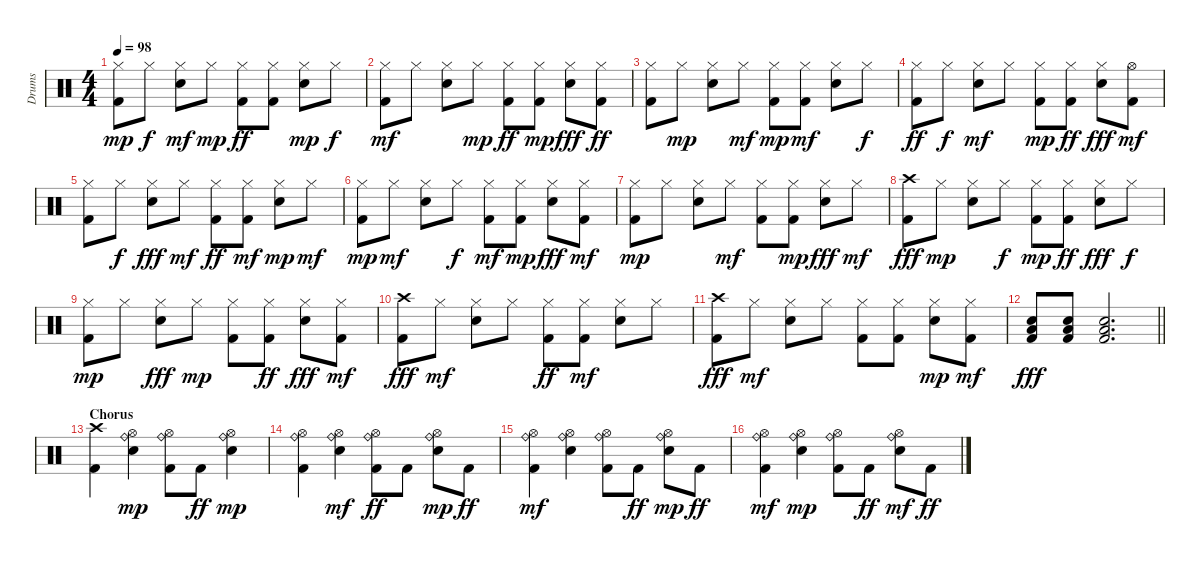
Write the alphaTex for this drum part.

\track ("Drums" "Drums") {instrument percussion}
\staff {score}
\articulation defaults
\ts (4 4)
\tempo 98
\clef neutral
\ks c
("Kick (hit) 2" "Hi-Hat (closed)").8{dy mp} "Hi-Hat (closed)".8{dy f} ("Electric Snare (hit)" "Hi-Hat (closed)").8{dy mf} "Hi-Hat (closed)".8{dy mp} ("Kick (hit) 2" "Hi-Hat (closed)").8{dy ff} ("Kick (hit) 2" "Hi-Hat (closed)").8 ("Electric Snare (hit)" "Hi-Hat (closed)").8{dy mp} "Hi-Hat (closed)".8{dy f} |
("Kick (hit) 2" "Hi-Hat (closed)").8{dy mf} "Hi-Hat (closed)".8 ("Electric Snare (hit)" "Hi-Hat (closed)").8 "Hi-Hat (closed)".8{dy mp} ("Kick (hit) 2" "Hi-Hat (closed)").8{dy ff} ("Kick (hit) 2" "Hi-Hat (closed)").8{dy mp} ("Electric Snare (hit)" "Hi-Hat (closed)").8{dy fff} ("Kick (hit) 2" "Hi-Hat (closed)").8{dy ff} |
("Kick (hit) 2" "Hi-Hat (closed)").8 "Hi-Hat (closed)".8{dy mp} ("Electric Snare (hit)" "Hi-Hat (closed)").8 "Hi-Hat (closed)".8{dy mf} ("Kick (hit) 2" "Hi-Hat (closed)").8{dy mp} ("Kick (hit) 2" "Hi-Hat (closed)").8{dy mf} ("Electric Snare (hit)" "Hi-Hat (closed)").8 "Hi-Hat (closed)".8{dy f} |
("Kick (hit) 2" "Hi-Hat (closed)").8{dy ff} "Hi-Hat (closed)".8{dy f} ("Electric Snare (hit)" "Hi-Hat (closed)").8{dy mf} "Hi-Hat (closed)".8 ("Kick (hit) 2" "Hi-Hat (closed)").8{dy mp} ("Kick (hit) 2" "Hi-Hat (closed)").8{dy ff} ("Electric Snare (hit)" "Hi-Hat (closed)").8{dy fff} ("Kick (hit) 2" "Hi-Hat (open)").8{dy mf} |
("Kick (hit) 2" "Hi-Hat (closed)").8 "Hi-Hat (closed)".8{dy f} ("Electric Snare (hit)" "Hi-Hat (closed)").8{dy fff} "Hi-Hat (closed)".8{dy mf} ("Kick (hit) 2" "Hi-Hat (closed)").8{dy ff} ("Kick (hit) 2" "Hi-Hat (closed)").8{dy mf} ("Electric Snare (hit)" "Hi-Hat (closed)").8{dy mp} "Hi-Hat (closed)".8{dy mf} |
("Kick (hit) 2" "Hi-Hat (closed)").8{dy mp} "Hi-Hat (closed)".8{dy mf} ("Electric Snare (hit)" "Hi-Hat (closed)").8 "Hi-Hat (closed)".8{dy f} ("Kick (hit) 2" "Hi-Hat (closed)").8{dy mf} ("Kick (hit) 2" "Hi-Hat (closed)").8{dy mp} ("Electric Snare (hit)" "Hi-Hat (closed)").8{dy fff} ("Kick (hit) 2" "Hi-Hat (closed)").8{dy mf} |
("Kick (hit) 2" "Hi-Hat (closed)").8{dy mp} "Hi-Hat (closed)".8 ("Electric Snare (hit)" "Hi-Hat (closed)").8 "Hi-Hat (closed)".8{dy mf} ("Kick (hit) 2" "Hi-Hat (closed)").8 ("Kick (hit) 2" "Hi-Hat (closed)").8{dy mp} ("Electric Snare (hit)" "Hi-Hat (closed)").8{dy fff} "Hi-Hat (closed)".8{dy mf} |
("Kick (hit) 2" "Crash high (hit)").8{dy fff} "Hi-Hat (closed)".8{dy mp} ("Electric Snare (hit)" "Hi-Hat (closed)").8 "Hi-Hat (closed)".8{dy f} ("Kick (hit) 2" "Hi-Hat (closed)").8{dy mp} ("Kick (hit) 2" "Hi-Hat (closed)").8{dy ff} ("Electric Snare (hit)" "Hi-Hat (closed)").8{dy fff} "Hi-Hat (closed)".8{dy f} |
("Kick (hit) 2" "Hi-Hat (closed)").8{dy mp} "Hi-Hat (closed)".8 ("Electric Snare (hit)" "Hi-Hat (closed)").8{dy fff} "Hi-Hat (closed)".8{dy mp} ("Kick (hit) 2" "Hi-Hat (closed)").8 ("Kick (hit) 2" "Hi-Hat (closed)").8{dy ff} ("Electric Snare (hit)" "Hi-Hat (closed)").8{dy fff} ("Kick (hit) 2" "Hi-Hat (closed)").8{dy mf} |
("Kick (hit) 2" "Crash high (hit)").8{dy fff} "Hi-Hat (closed)".8{dy mf} ("Electric Snare (hit)" "Hi-Hat (closed)").8 "Hi-Hat (closed)".8 ("Kick (hit) 2" "Hi-Hat (closed)").8{dy ff} ("Kick (hit) 2" "Hi-Hat (closed)").8{dy mf} ("Electric Snare (hit)" "Hi-Hat (closed)").8 "Hi-Hat (closed)".8 |
("Kick (hit) 2" "Crash high (hit)").8{dy fff} "Hi-Hat (closed)".8{dy mf} ("Electric Snare (hit)" "Hi-Hat (closed)").8 "Hi-Hat (closed)".8 ("Kick (hit) 2" "Hi-Hat (closed)").8 ("Kick (hit) 2" "Hi-Hat (closed)").8 ("Electric Snare (hit)" "Hi-Hat (closed)").8{dy mp} ("Kick (hit) 2" "Hi-Hat (closed)").8{dy mf} |
\barLineRight lightlight
("Kick (hit) 2" "Electric Snare (hit)" "Low Floor Tom (hit)").8{dy fff} ("Kick (hit) 2" "Electric Snare (hit)" "Low Floor Tom (hit)").8 ("Kick (hit) 2" "Electric Snare (hit)" "Low Floor Tom (hit)").2{d} |
\section ("" "Chorus")
("Kick (hit) 2" "Crash high (hit)").4 ("Electric Snare (hit)" "Hi-Hat (open)" "Ride (bell)").4{dy mp} ("Kick (hit) 2" "Hi-Hat (open)" "Ride (bell)").8 "Kick (hit) 2".8{dy ff} ("Electric Snare (hit)" "Hi-Hat (open)" "Ride (bell)").4{dy mp} |
("Kick (hit) 2" "Hi-Hat (open)" "Ride (bell)").4 ("Electric Snare (hit)" "Hi-Hat (open)" "Ride (bell)").4{dy mf} ("Kick (hit) 2" "Hi-Hat (open)" "Ride (bell)").8{dy ff} "Kick (hit) 2".8 ("Electric Snare (hit)" "Hi-Hat (open)" "Ride (bell)").8{dy mp} "Kick (hit) 2".8{dy ff} |
("Kick (hit) 2" "Hi-Hat (open)" "Ride (bell)").4{dy mf} ("Electric Snare (hit)" "Hi-Hat (open)" "Ride (bell)").4 ("Kick (hit) 2" "Hi-Hat (open)" "Ride (bell)").8 "Kick (hit) 2".8{dy ff} ("Electric Snare (hit)" "Hi-Hat (open)" "Ride (bell)").8{dy mp} "Kick (hit) 2".8{dy ff} |
("Kick (hit) 2" "Hi-Hat (open)" "Ride (bell)").4{dy mf} ("Electric Snare (hit)" "Hi-Hat (open)" "Ride (bell)").4{dy mp} ("Kick (hit) 2" "Hi-Hat (open)" "Ride (bell)").8 "Kick (hit) 2".8{dy ff} ("Electric Snare (hit)" "Hi-Hat (open)" "Ride (bell)").8{dy mf} "Kick (hit) 2".8{dy ff}
